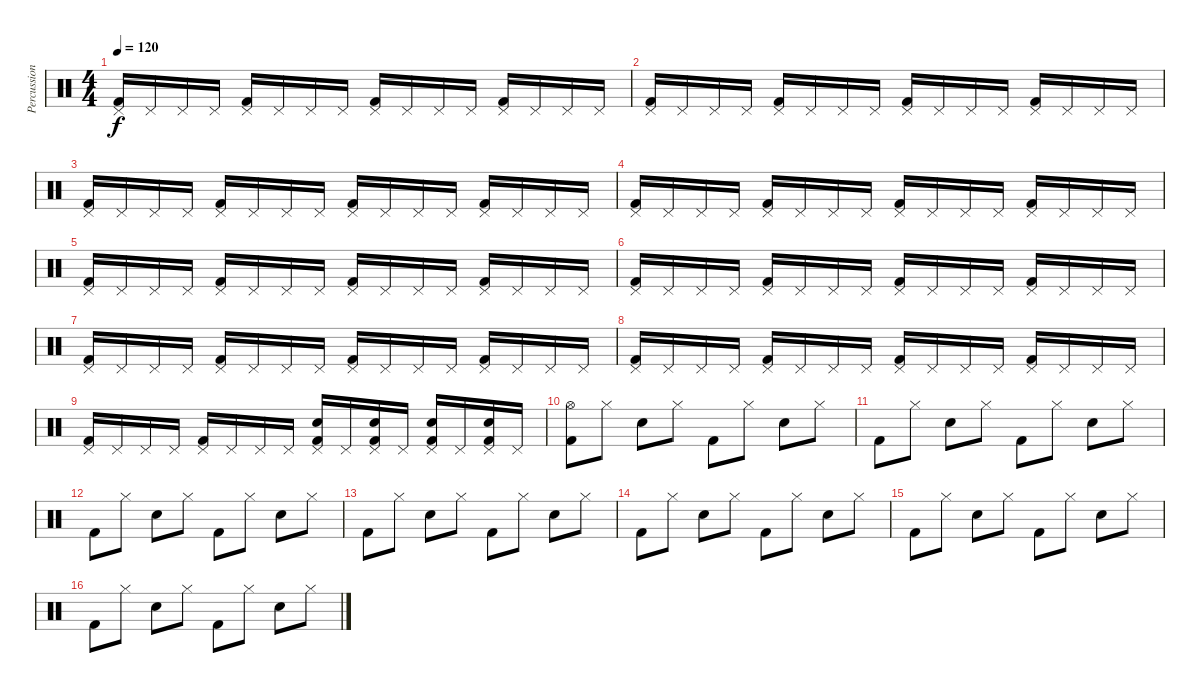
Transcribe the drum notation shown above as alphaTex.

\track ("Percussions" "Percussion") {instrument percussion}
\staff {score}
\articulation defaults
\ts (4 4)
\tempo 120
\clef neutral
\ks c
("Pedal Hi-Hat (hit)" "Kick (hit) 2").16{dy f} "Pedal Hi-Hat (hit)".16 "Pedal Hi-Hat (hit)".16 "Pedal Hi-Hat (hit)".16 ("Pedal Hi-Hat (hit)" "Kick (hit) 2").16 "Pedal Hi-Hat (hit)".16 "Pedal Hi-Hat (hit)".16 "Pedal Hi-Hat (hit)".16 ("Pedal Hi-Hat (hit)" "Kick (hit) 2").16 "Pedal Hi-Hat (hit)".16 "Pedal Hi-Hat (hit)".16 "Pedal Hi-Hat (hit)".16 ("Pedal Hi-Hat (hit)" "Kick (hit) 2").16 "Pedal Hi-Hat (hit)".16 "Pedal Hi-Hat (hit)".16 "Pedal Hi-Hat (hit)".16 |
("Pedal Hi-Hat (hit)" "Kick (hit) 2").16 "Pedal Hi-Hat (hit)".16 "Pedal Hi-Hat (hit)".16 "Pedal Hi-Hat (hit)".16 ("Pedal Hi-Hat (hit)" "Kick (hit) 2").16 "Pedal Hi-Hat (hit)".16 "Pedal Hi-Hat (hit)".16 "Pedal Hi-Hat (hit)".16 ("Pedal Hi-Hat (hit)" "Kick (hit) 2").16 "Pedal Hi-Hat (hit)".16 "Pedal Hi-Hat (hit)".16 "Pedal Hi-Hat (hit)".16 ("Pedal Hi-Hat (hit)" "Kick (hit) 2").16 "Pedal Hi-Hat (hit)".16 "Pedal Hi-Hat (hit)".16 "Pedal Hi-Hat (hit)".16 |
("Pedal Hi-Hat (hit)" "Kick (hit) 2").16 "Pedal Hi-Hat (hit)".16 "Pedal Hi-Hat (hit)".16 "Pedal Hi-Hat (hit)".16 ("Pedal Hi-Hat (hit)" "Kick (hit) 2").16 "Pedal Hi-Hat (hit)".16 "Pedal Hi-Hat (hit)".16 "Pedal Hi-Hat (hit)".16 ("Pedal Hi-Hat (hit)" "Kick (hit) 2").16 "Pedal Hi-Hat (hit)".16 "Pedal Hi-Hat (hit)".16 "Pedal Hi-Hat (hit)".16 ("Pedal Hi-Hat (hit)" "Kick (hit) 2").16 "Pedal Hi-Hat (hit)".16 "Pedal Hi-Hat (hit)".16 "Pedal Hi-Hat (hit)".16 |
("Pedal Hi-Hat (hit)" "Kick (hit) 2").16 "Pedal Hi-Hat (hit)".16 "Pedal Hi-Hat (hit)".16 "Pedal Hi-Hat (hit)".16 ("Pedal Hi-Hat (hit)" "Kick (hit) 2").16 "Pedal Hi-Hat (hit)".16 "Pedal Hi-Hat (hit)".16 "Pedal Hi-Hat (hit)".16 ("Pedal Hi-Hat (hit)" "Kick (hit) 2").16 "Pedal Hi-Hat (hit)".16 "Pedal Hi-Hat (hit)".16 "Pedal Hi-Hat (hit)".16 ("Pedal Hi-Hat (hit)" "Kick (hit) 2").16 "Pedal Hi-Hat (hit)".16 "Pedal Hi-Hat (hit)".16 "Pedal Hi-Hat (hit)".16 |
("Pedal Hi-Hat (hit)" "Kick (hit) 2").16 "Pedal Hi-Hat (hit)".16 "Pedal Hi-Hat (hit)".16 "Pedal Hi-Hat (hit)".16 ("Pedal Hi-Hat (hit)" "Kick (hit) 2").16 "Pedal Hi-Hat (hit)".16 "Pedal Hi-Hat (hit)".16 "Pedal Hi-Hat (hit)".16 ("Pedal Hi-Hat (hit)" "Kick (hit) 2").16 "Pedal Hi-Hat (hit)".16 "Pedal Hi-Hat (hit)".16 "Pedal Hi-Hat (hit)".16 ("Pedal Hi-Hat (hit)" "Kick (hit) 2").16 "Pedal Hi-Hat (hit)".16 "Pedal Hi-Hat (hit)".16 "Pedal Hi-Hat (hit)".16 |
("Pedal Hi-Hat (hit)" "Kick (hit) 2").16 "Pedal Hi-Hat (hit)".16 "Pedal Hi-Hat (hit)".16 "Pedal Hi-Hat (hit)".16 ("Pedal Hi-Hat (hit)" "Kick (hit) 2").16 "Pedal Hi-Hat (hit)".16 "Pedal Hi-Hat (hit)".16 "Pedal Hi-Hat (hit)".16 ("Pedal Hi-Hat (hit)" "Kick (hit) 2").16 "Pedal Hi-Hat (hit)".16 "Pedal Hi-Hat (hit)".16 "Pedal Hi-Hat (hit)".16 ("Pedal Hi-Hat (hit)" "Kick (hit) 2").16 "Pedal Hi-Hat (hit)".16 "Pedal Hi-Hat (hit)".16 "Pedal Hi-Hat (hit)".16 |
("Pedal Hi-Hat (hit)" "Kick (hit) 2").16 "Pedal Hi-Hat (hit)".16 "Pedal Hi-Hat (hit)".16 "Pedal Hi-Hat (hit)".16 ("Pedal Hi-Hat (hit)" "Kick (hit) 2").16 "Pedal Hi-Hat (hit)".16 "Pedal Hi-Hat (hit)".16 "Pedal Hi-Hat (hit)".16 ("Pedal Hi-Hat (hit)" "Kick (hit) 2").16 "Pedal Hi-Hat (hit)".16 "Pedal Hi-Hat (hit)".16 "Pedal Hi-Hat (hit)".16 ("Pedal Hi-Hat (hit)" "Kick (hit) 2").16 "Pedal Hi-Hat (hit)".16 "Pedal Hi-Hat (hit)".16 "Pedal Hi-Hat (hit)".16 |
("Pedal Hi-Hat (hit)" "Kick (hit) 2").16 "Pedal Hi-Hat (hit)".16 "Pedal Hi-Hat (hit)".16 "Pedal Hi-Hat (hit)".16 ("Pedal Hi-Hat (hit)" "Kick (hit) 2").16 "Pedal Hi-Hat (hit)".16 "Pedal Hi-Hat (hit)".16 "Pedal Hi-Hat (hit)".16 ("Pedal Hi-Hat (hit)" "Kick (hit) 2").16 "Pedal Hi-Hat (hit)".16 "Pedal Hi-Hat (hit)".16 "Pedal Hi-Hat (hit)".16 ("Pedal Hi-Hat (hit)" "Kick (hit) 2").16 "Pedal Hi-Hat (hit)".16 "Pedal Hi-Hat (hit)".16 "Pedal Hi-Hat (hit)".16 |
("Pedal Hi-Hat (hit)" "Kick (hit) 2").16 "Pedal Hi-Hat (hit)".16 "Pedal Hi-Hat (hit)".16 "Pedal Hi-Hat (hit)".16 ("Pedal Hi-Hat (hit)" "Kick (hit) 2").16 "Pedal Hi-Hat (hit)".16 "Pedal Hi-Hat (hit)".16 "Pedal Hi-Hat (hit)".16 ("Pedal Hi-Hat (hit)" "Snare (hit) 2" "Kick (hit) 2").16 "Pedal Hi-Hat (hit)".16 ("Pedal Hi-Hat (hit)" "Snare (hit) 2" "Kick (hit) 2").16 "Pedal Hi-Hat (hit)".16 ("Pedal Hi-Hat (hit)" "Snare (hit) 2" "Kick (hit) 2").16 "Pedal Hi-Hat (hit)".16 ("Pedal Hi-Hat (hit)" "Snare (hit) 2" "Kick (hit) 2").16 "Pedal Hi-Hat (hit)".16 |
("Kick (hit) 2" "Hi-Hat (open)").8 "Hi-Hat (closed)".8 "Snare (hit) 2".8 "Hi-Hat (closed)".8 "Kick (hit) 2".8 "Hi-Hat (closed)".8 "Snare (hit) 2".8 "Hi-Hat (closed)".8 |
"Kick (hit) 2".8 "Hi-Hat (closed)".8 "Snare (hit) 2".8 "Hi-Hat (closed)".8 "Kick (hit) 2".8 "Hi-Hat (closed)".8 "Snare (hit) 2".8 "Hi-Hat (closed)".8 |
"Kick (hit) 2".8 "Hi-Hat (closed)".8 "Snare (hit) 2".8 "Hi-Hat (closed)".8 "Kick (hit) 2".8 "Hi-Hat (closed)".8 "Snare (hit) 2".8 "Hi-Hat (closed)".8 |
"Kick (hit) 2".8 "Hi-Hat (closed)".8 "Snare (hit) 2".8 "Hi-Hat (closed)".8 "Kick (hit) 2".8 "Hi-Hat (closed)".8 "Snare (hit) 2".8 "Hi-Hat (closed)".8 |
"Kick (hit) 2".8 "Hi-Hat (closed)".8 "Snare (hit) 2".8 "Hi-Hat (closed)".8 "Kick (hit) 2".8 "Hi-Hat (closed)".8 "Snare (hit) 2".8 "Hi-Hat (closed)".8 |
"Kick (hit) 2".8 "Hi-Hat (closed)".8 "Snare (hit) 2".8 "Hi-Hat (closed)".8 "Kick (hit) 2".8 "Hi-Hat (closed)".8 "Snare (hit) 2".8 "Hi-Hat (closed)".8 |
"Kick (hit) 2".8 "Hi-Hat (closed)".8 "Snare (hit) 2".8 "Hi-Hat (closed)".8 "Kick (hit) 2".8 "Hi-Hat (closed)".8 "Snare (hit) 2".8 "Hi-Hat (closed)".8
